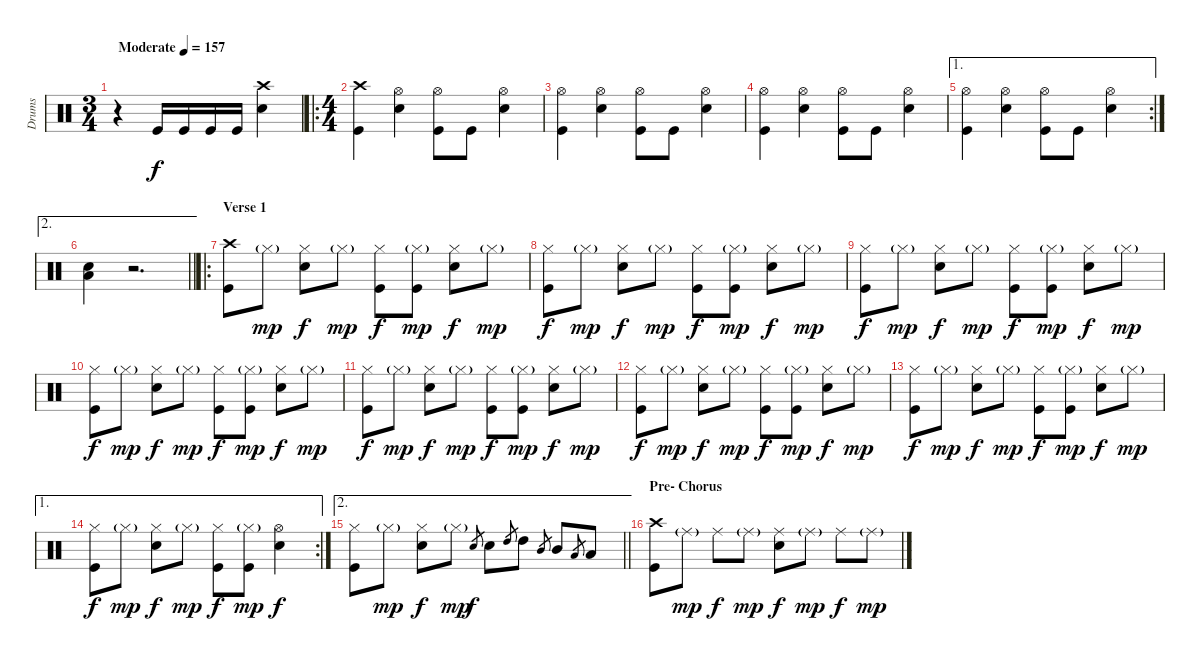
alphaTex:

\track ("Drums" "Drums") {instrument percussion}
\staff {score}
\articulation defaults
\ts (3 4)
\tempo (157 "Moderate")
\clef neutral
\ks c
r.4{dy f} "Kick (hit)".16 "Kick (hit)".16 "Kick (hit)".16 "Kick (hit)".16 ("Crash high (hit)" "Snare (hit) 2").4 |
\ro
\ts (4 4)
("Crash high (hit)" "Kick (hit)").4 ("Hi-Hat (open)" "Snare (hit) 2").4 ("Hi-Hat (open)" "Kick (hit)").8 "Kick (hit)".8 ("Hi-Hat (open)" "Snare (hit) 2").4 |
("Hi-Hat (open)" "Kick (hit)").4 ("Hi-Hat (open)" "Snare (hit) 2").4 ("Hi-Hat (open)" "Kick (hit)").8 "Kick (hit)".8 ("Hi-Hat (open)" "Snare (hit) 2").4 |
("Hi-Hat (open)" "Kick (hit)").4 ("Hi-Hat (open)" "Snare (hit) 2").4 ("Hi-Hat (open)" "Kick (hit)").8 "Kick (hit)".8 ("Hi-Hat (open)" "Snare (hit) 2").4 |
\ae 1
\rc 2
("Hi-Hat (open)" "Kick (hit)").4 ("Hi-Hat (open)" "Snare (hit) 2").4 ("Hi-Hat (open)" "Kick (hit)").8 "Kick (hit)".8 ("Hi-Hat (open)" "Snare (hit) 2").4 |
\ae 2
\barLineRight lightlight
("Snare (hit) 2" "Low Floor Tom (hit)").4 r.2{d} |
\ro
\section ("" "Verse 1")
("Crash high (hit)" "Kick (hit)").8 "Hi-Hat (closed)"{g}.8{dy mp} ("Hi-Hat (closed)" "Snare (hit) 2").8{dy f} "Hi-Hat (closed)"{g}.8{dy mp} ("Hi-Hat (closed)" "Kick (hit)").8{dy f} ("Hi-Hat (closed)"{g} "Kick (hit)").8{dy mp} ("Hi-Hat (closed)" "Snare (hit) 2").8{dy f} "Hi-Hat (closed)"{g}.8{dy mp} |
("Hi-Hat (closed)" "Kick (hit)").8{dy f} "Hi-Hat (closed)"{g}.8{dy mp} ("Hi-Hat (closed)" "Snare (hit) 2").8{dy f} "Hi-Hat (closed)"{g}.8{dy mp} ("Hi-Hat (closed)" "Kick (hit)").8{dy f} ("Hi-Hat (closed)"{g} "Kick (hit)").8{dy mp} ("Hi-Hat (closed)" "Snare (hit) 2").8{dy f} "Hi-Hat (closed)"{g}.8{dy mp} |
("Hi-Hat (closed)" "Kick (hit)").8{dy f} "Hi-Hat (closed)"{g}.8{dy mp} ("Hi-Hat (closed)" "Snare (hit) 2").8{dy f} "Hi-Hat (closed)"{g}.8{dy mp} ("Hi-Hat (closed)" "Kick (hit)").8{dy f} ("Hi-Hat (closed)"{g} "Kick (hit)").8{dy mp} ("Hi-Hat (closed)" "Snare (hit) 2").8{dy f} "Hi-Hat (closed)"{g}.8{dy mp} |
("Hi-Hat (closed)" "Kick (hit)").8{dy f} "Hi-Hat (closed)"{g}.8{dy mp} ("Hi-Hat (closed)" "Snare (hit) 2").8{dy f} "Hi-Hat (closed)"{g}.8{dy mp} ("Hi-Hat (closed)" "Kick (hit)").8{dy f} ("Hi-Hat (closed)"{g} "Kick (hit)").8{dy mp} ("Hi-Hat (closed)" "Snare (hit) 2").8{dy f} "Hi-Hat (closed)"{g}.8{dy mp} |
("Hi-Hat (closed)" "Kick (hit)").8{dy f} "Hi-Hat (closed)"{g}.8{dy mp} ("Hi-Hat (closed)" "Snare (hit) 2").8{dy f} "Hi-Hat (closed)"{g}.8{dy mp} ("Hi-Hat (closed)" "Kick (hit)").8{dy f} ("Hi-Hat (closed)"{g} "Kick (hit)").8{dy mp} ("Hi-Hat (closed)" "Snare (hit) 2").8{dy f} "Hi-Hat (closed)"{g}.8{dy mp} |
("Hi-Hat (closed)" "Kick (hit)").8{dy f} "Hi-Hat (closed)"{g}.8{dy mp} ("Hi-Hat (closed)" "Snare (hit) 2").8{dy f} "Hi-Hat (closed)"{g}.8{dy mp} ("Hi-Hat (closed)" "Kick (hit)").8{dy f} ("Hi-Hat (closed)"{g} "Kick (hit)").8{dy mp} ("Hi-Hat (closed)" "Snare (hit) 2").8{dy f} "Hi-Hat (closed)"{g}.8{dy mp} |
("Hi-Hat (closed)" "Kick (hit)").8{dy f} "Hi-Hat (closed)"{g}.8{dy mp} ("Hi-Hat (closed)" "Snare (hit) 2").8{dy f} "Hi-Hat (closed)"{g}.8{dy mp} ("Hi-Hat (closed)" "Kick (hit)").8{dy f} ("Hi-Hat (closed)"{g} "Kick (hit)").8{dy mp} ("Hi-Hat (closed)" "Snare (hit) 2").8{dy f} "Hi-Hat (closed)"{g}.8{dy mp} |
\ae 1
\rc 2
("Hi-Hat (closed)" "Kick (hit)").8{dy f} "Hi-Hat (closed)"{g}.8{dy mp} ("Hi-Hat (closed)" "Snare (hit) 2").8{dy f} "Hi-Hat (closed)"{g}.8{dy mp} ("Hi-Hat (closed)" "Kick (hit)").8{dy f} ("Hi-Hat (closed)"{g} "Kick (hit)").8{dy mp} ("Hi-Hat (open)" "Snare (hit) 2").4{dy f} |
\ae 2
\barLineRight lightlight
("Hi-Hat (closed)" "Kick (hit)").8 "Hi-Hat (closed)"{g}.8{dy mp} ("Hi-Hat (closed)" "Snare (hit) 2").8{dy f} "Hi-Hat (closed)"{g}.8{dy mp} "Snare (hit) 2".8{gr dy f} "Snare (hit) 2".8 "High Tom (hit)".8{gr} "High Tom (hit)".8 "Mid Tom (hit)".8{gr} "Mid Tom (hit)".8 "Low Tom (hit)".8{gr} "Low Tom (hit)".8 |
\section ("" "Pre- Chorus")
("Crash high (hit)" "Kick (hit)").8 "Ride (middle)"{g}.8{dy mp} "Ride (middle)".8{dy f} "Ride (middle)"{g}.8{dy mp} ("Ride (middle)" "Snare (hit) 2").8{dy f} "Ride (middle)"{g}.8{dy mp} "Ride (middle)".8{dy f} "Ride (middle)"{g}.8{dy mp}
